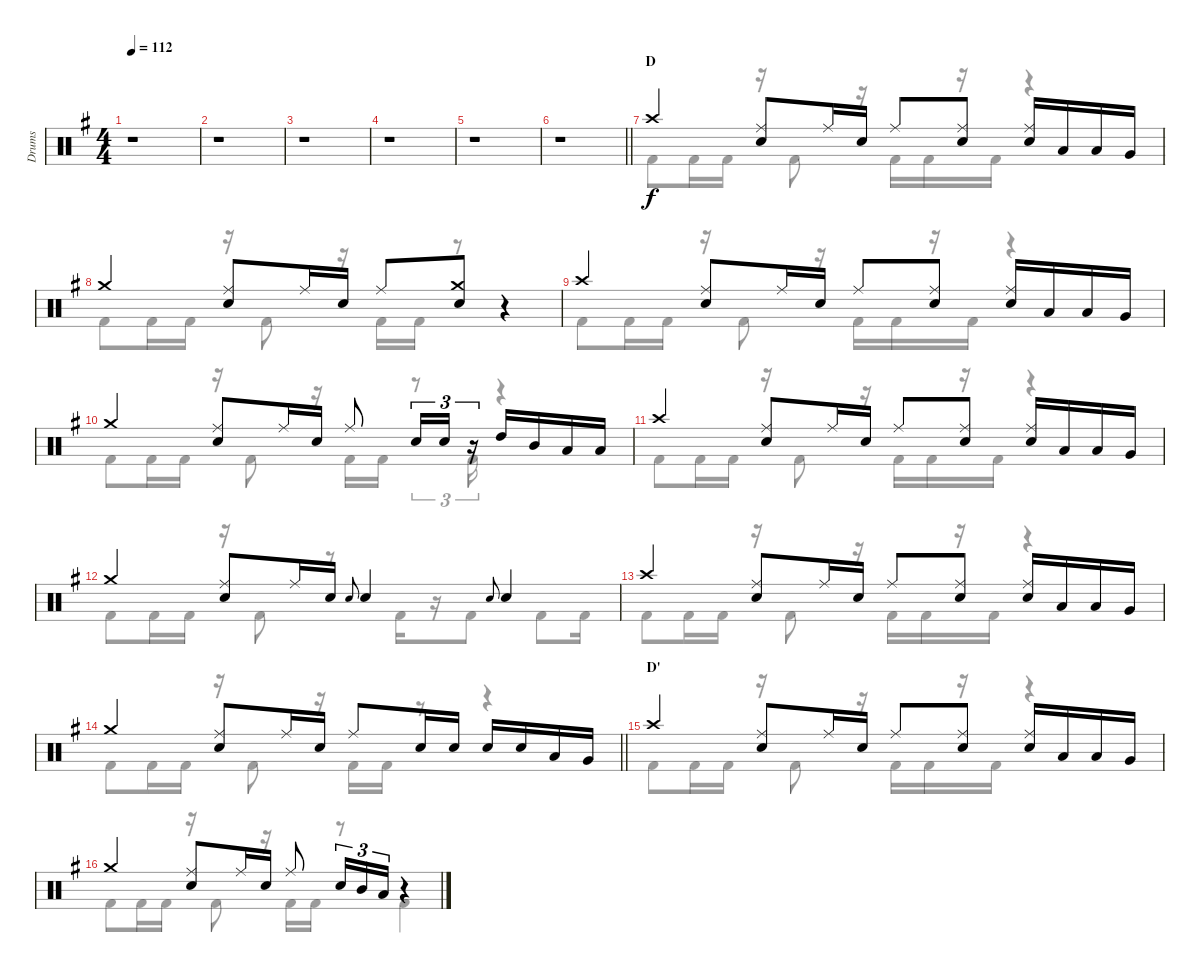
\track ("Drums" "Drums") {instrument percussion}
\staff {score}
\articulation defaults
\voice
\ts (4 4)
\tempo 112
\clef neutral
\ks g
r.1{dy f} |
r.1 |
r.1 |
r.1 |
r.1 |
\barLineRight lightlight
r.1 |
\section ("" "D")
"Crash high (hit)".4 ("Ride (middle)" "Snare (hit) 2").8 "Ride (middle)".16 "Snare (hit) 2".16 "Ride (middle)".8 ("Ride (middle)" "Snare (hit) 2").8 ("Ride (middle)" "Snare (hit) 2").16 "Low Tom (hit)".16 "Low Tom (hit)".16 "Very Low Tom (hit)".16 |
"Crash medium (hit)".4 ("Ride (middle)" "Snare (hit) 2").8 "Ride (middle)".16 "Snare (hit) 2".16 "Ride (middle)".8 ("Crash medium (hit)" "Snare (hit) 2").8 r.4 |
"Crash high (hit)".4 ("Ride (middle)" "Snare (hit) 2").8 "Ride (middle)".16 "Snare (hit) 2".16 "Ride (middle)".8 ("Ride (middle)" "Snare (hit) 2").8 ("Ride (middle)" "Snare (hit) 2").16 "Low Tom (hit)".16 "Low Tom (hit)".16 "Very Low Tom (hit)".16 |
"Crash medium (hit)".4 ("Ride (middle)" "Snare (hit) 2").8 "Ride (middle)".16 "Snare (hit) 2".16 "Ride (middle)".8 "Snare (hit) 2".16{tu (3 2)} "Snare (hit) 2".16{tu (3 2)} r.16{tu (3 2)} "High Tom (hit)".16 "Mid Tom (hit)".16 "Low Tom (hit)".16 "Low Tom (hit)".16 |
"Crash high (hit)".4 ("Ride (middle)" "Snare (hit) 2").8 "Ride (middle)".16 "Snare (hit) 2".16 "Ride (middle)".8 ("Ride (middle)" "Snare (hit) 2").8 ("Ride (middle)" "Snare (hit) 2").16 "Low Tom (hit)".16 "Low Tom (hit)".16 "Very Low Tom (hit)".16 |
"Crash medium (hit)".4 ("Ride (middle)" "Snare (hit) 2").8 "Ride (middle)".16 "Snare (hit) 2".16 "Snare (hit) 2".8{gr onbeat} "Snare (hit) 2".4 "Snare (hit) 2".8{gr onbeat} "Snare (hit) 2".4 |
"Crash high (hit)".4 ("Ride (middle)" "Snare (hit) 2").8 "Ride (middle)".16 "Snare (hit) 2".16 "Ride (middle)".8 ("Ride (middle)" "Snare (hit) 2").8 ("Ride (middle)" "Snare (hit) 2").16 "Low Tom (hit)".16 "Low Tom (hit)".16 "Very Low Tom (hit)".16 |
\barLineRight lightlight "Crash medium (hit)".4
("Ride (middle)" "Snare (hit) 2").8 "Ride (middle)".16 "Snare (hit) 2".16 "Ride (middle)".8 "Snare (hit) 2".16 "Snare (hit) 2".16 "Snare (hit) 2".16 "Snare (hit) 2".16 "Low Tom (hit)".16 "Very Low Tom (hit)".16 |
\section ("" "D'")
"Crash high (hit)".4 ("Ride (middle)" "Snare (hit) 2").8 "Ride (middle)".16 "Snare (hit) 2".16 "Ride (middle)".8 ("Ride (middle)" "Snare (hit) 2").8 ("Ride (middle)" "Snare (hit) 2").16 "Low Tom (hit)".16 "Low Tom (hit)".16 "Very Low Tom (hit)".16 |
"Crash medium (hit)".4 ("Ride (middle)" "Snare (hit) 2").8 "Ride (middle)".16 "Snare (hit) 2".16 "Ride (middle)".8 "Snare (hit) 2".16{tu (3 2)} "Mid Tom (hit)".16{tu (3 2)} "Low Tom (hit)".16{tu (3 2)} r.4
\voice
\clef neutral
\ottava regular
\simile none
\ks g
|
|
|
|
|
\barLineRight lightlight
|
"Kick (hit) 2".8 "Kick (hit) 2".16 "Kick (hit) 2".16 r.16 "Kick (hit) 2".8 r.16 "Kick (hit) 2".16 "Kick (hit) 2".16 r.16 "Kick (hit) 2".16 r.4 |
"Kick (hit) 2".8 "Kick (hit) 2".16 "Kick (hit) 2".16 r.16 "Kick (hit) 2".8 r.16 "Kick (hit) 2".16 "Kick (hit) 2".16 r.8 r.4 |
"Kick (hit) 2".8 "Kick (hit) 2".16 "Kick (hit) 2".16 r.16 "Kick (hit) 2".8 r.16 "Kick (hit) 2".16 "Kick (hit) 2".16 r.16 "Kick (hit) 2".16 r.4 |
"Kick (hit) 2".8 "Kick (hit) 2".16 "Kick (hit) 2".16 r.16 "Kick (hit) 2".8 r.16 "Kick (hit) 2".16 "Kick (hit) 2".16 r.8{tu (3 2)} "Kick (hit) 2".16{tu (3 2)} r.4 |
"Kick (hit) 2".8 "Kick (hit) 2".16 "Kick (hit) 2".16 r.16 "Kick (hit) 2".8 r.16 "Kick (hit) 2".16 "Kick (hit) 2".16 r.16 "Kick (hit) 2".16 r.4 |
"Kick (hit) 2".8 "Kick (hit) 2".16 "Kick (hit) 2".16 r.16 "Kick (hit) 2".8 r.8 "Kick (hit) 2".16 r.16 "Kick (hit) 2".8 "Kick (hit) 2".8 "Kick (hit) 2".16 |
"Kick (hit) 2".8 "Kick (hit) 2".16 "Kick (hit) 2".16 r.16 "Kick (hit) 2".8 r.16 "Kick (hit) 2".16 "Kick (hit) 2".16 r.16 "Kick (hit) 2".16 r.4 |
\barLineRight lightlight "Kick (hit) 2".8 "Kick (hit) 2".16 "Kick (hit) 2".16
r.16 "Kick (hit) 2".8 r.16 "Kick (hit) 2".16 "Kick (hit) 2".16 r.8 r.4 |
"Kick (hit) 2".8 "Kick (hit) 2".16 "Kick (hit) 2".16 r.16 "Kick (hit) 2".8 r.16 "Kick (hit) 2".16 "Kick (hit) 2".16 r.16 "Kick (hit) 2".16 r.4 |
"Kick (hit) 2".8 "Kick (hit) 2".16 "Kick (hit) 2".16 r.16 "Kick (hit) 2".8 r.16 "Kick (hit) 2".16 "Kick (hit) 2".16 r.8 "Kick (hit) 2".4
